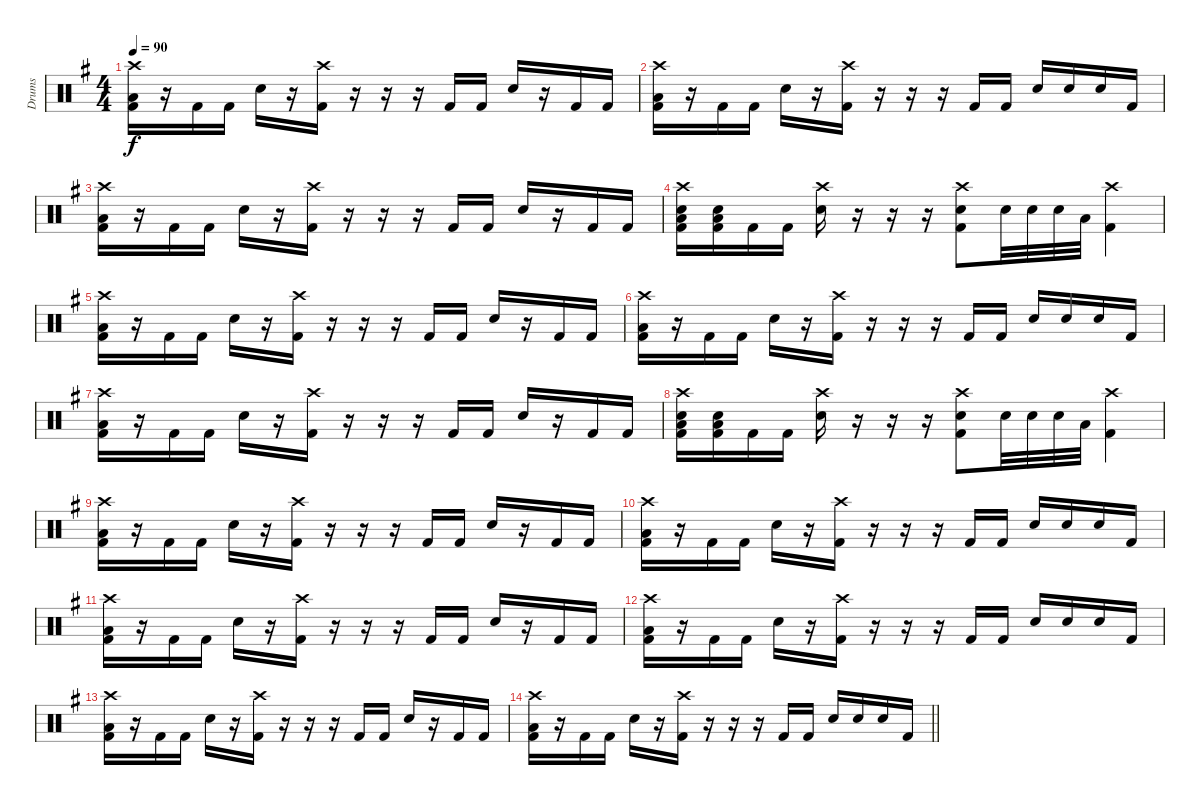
\track ("Drums" "Drums") {instrument percussion}
\staff {score}
\articulation defaults
\ts (4 4)
\tempo 90
\clef neutral
\ks g
("Crash high (hit)" "Low Floor Tom (hit)" "Kick (hit) 2").16{dy f} r.16 "Kick (hit) 2".16 "Kick (hit) 2".16 "Snare (hit) 2".16 r.16 ("Crash high (hit)" "Kick (hit) 2").16 r.16 r.16 r.16 "Kick (hit) 2".16 "Kick (hit) 2".16 "Snare (hit) 2".16 r.16 "Kick (hit) 2".16 "Kick (hit) 2".16 |
("Crash high (hit)" "Low Floor Tom (hit)" "Kick (hit) 2").16 r.16 "Kick (hit) 2".16 "Kick (hit) 2".16 "Snare (hit) 2".16 r.16 ("Crash high (hit)" "Kick (hit) 2").16 r.16 r.16 r.16 "Kick (hit) 2".16 "Kick (hit) 2".16 "Snare (hit) 2".16 "Snare (hit) 2".16 "Snare (hit) 2".16 "Kick (hit) 2".16 |
("Crash high (hit)" "Low Floor Tom (hit)" "Kick (hit) 2").16 r.16 "Kick (hit) 2".16 "Kick (hit) 2".16 "Snare (hit) 2".16 r.16 ("Crash high (hit)" "Kick (hit) 2").16 r.16 r.16 r.16 "Kick (hit) 2".16 "Kick (hit) 2".16 "Snare (hit) 2".16 r.16 "Kick (hit) 2".16 "Kick (hit) 2".16 |
("Crash high (hit)" "Snare (hit) 2" "Low Floor Tom (hit)" "Kick (hit) 2").16 ("Snare (hit) 2" "Low Floor Tom (hit)" "Kick (hit) 2").16 "Kick (hit) 2".16 "Kick (hit) 2".16 ("Crash high (hit)" "Snare (hit) 2").16 r.16 r.16 r.16 ("Crash high (hit)" "Snare (hit) 2" "Kick (hit) 2").8 "Snare (hit) 2".32 "Snare (hit) 2".32 "Snare (hit) 2".32 "Low Floor Tom (hit)".32 ("Crash high (hit)" "Kick (hit) 2").4 |
("Crash high (hit)" "Low Floor Tom (hit)" "Kick (hit) 2").16 r.16 "Kick (hit) 2".16 "Kick (hit) 2".16 "Snare (hit) 2".16 r.16 ("Crash high (hit)" "Kick (hit) 2").16 r.16 r.16 r.16 "Kick (hit) 2".16 "Kick (hit) 2".16 "Snare (hit) 2".16 r.16 "Kick (hit) 2".16 "Kick (hit) 2".16 |
("Crash high (hit)" "Low Floor Tom (hit)" "Kick (hit) 2").16 r.16 "Kick (hit) 2".16 "Kick (hit) 2".16 "Snare (hit) 2".16 r.16 ("Crash high (hit)" "Kick (hit) 2").16 r.16 r.16 r.16 "Kick (hit) 2".16 "Kick (hit) 2".16 "Snare (hit) 2".16 "Snare (hit) 2".16 "Snare (hit) 2".16 "Kick (hit) 2".16 |
("Crash high (hit)" "Low Floor Tom (hit)" "Kick (hit) 2").16 r.16 "Kick (hit) 2".16 "Kick (hit) 2".16 "Snare (hit) 2".16 r.16 ("Crash high (hit)" "Kick (hit) 2").16 r.16 r.16 r.16 "Kick (hit) 2".16 "Kick (hit) 2".16 "Snare (hit) 2".16 r.16 "Kick (hit) 2".16 "Kick (hit) 2".16 |
("Crash high (hit)" "Snare (hit) 2" "Low Floor Tom (hit)" "Kick (hit) 2").16 ("Snare (hit) 2" "Low Floor Tom (hit)" "Kick (hit) 2").16 "Kick (hit) 2".16 "Kick (hit) 2".16 ("Crash high (hit)" "Snare (hit) 2").16 r.16 r.16 r.16 ("Crash high (hit)" "Snare (hit) 2" "Kick (hit) 2").8 "Snare (hit) 2".32 "Snare (hit) 2".32 "Snare (hit) 2".32 "Low Floor Tom (hit)".32 ("Crash high (hit)" "Kick (hit) 2").4 |
("Crash high (hit)" "Low Floor Tom (hit)" "Kick (hit) 2").16 r.16 "Kick (hit) 2".16 "Kick (hit) 2".16 "Snare (hit) 2".16 r.16 ("Crash high (hit)" "Kick (hit) 2").16 r.16 r.16 r.16 "Kick (hit) 2".16 "Kick (hit) 2".16 "Snare (hit) 2".16 r.16 "Kick (hit) 2".16 "Kick (hit) 2".16 |
("Crash high (hit)" "Low Floor Tom (hit)" "Kick (hit) 2").16 r.16 "Kick (hit) 2".16 "Kick (hit) 2".16 "Snare (hit) 2".16 r.16 ("Crash high (hit)" "Kick (hit) 2").16 r.16 r.16 r.16 "Kick (hit) 2".16 "Kick (hit) 2".16 "Snare (hit) 2".16 "Snare (hit) 2".16 "Snare (hit) 2".16 "Kick (hit) 2".16 |
("Crash high (hit)" "Low Floor Tom (hit)" "Kick (hit) 2").16 r.16 "Kick (hit) 2".16 "Kick (hit) 2".16 "Snare (hit) 2".16 r.16 ("Crash high (hit)" "Kick (hit) 2").16 r.16 r.16 r.16 "Kick (hit) 2".16 "Kick (hit) 2".16 "Snare (hit) 2".16 r.16 "Kick (hit) 2".16 "Kick (hit) 2".16 |
("Crash high (hit)" "Low Floor Tom (hit)" "Kick (hit) 2").16 r.16 "Kick (hit) 2".16 "Kick (hit) 2".16 "Snare (hit) 2".16 r.16 ("Crash high (hit)" "Kick (hit) 2").16 r.16 r.16 r.16 "Kick (hit) 2".16 "Kick (hit) 2".16 "Snare (hit) 2".16 "Snare (hit) 2".16 "Snare (hit) 2".16 "Kick (hit) 2".16 |
("Crash high (hit)" "Low Floor Tom (hit)" "Kick (hit) 2").16 r.16 "Kick (hit) 2".16 "Kick (hit) 2".16 "Snare (hit) 2".16 r.16 ("Crash high (hit)" "Kick (hit) 2").16 r.16 r.16 r.16 "Kick (hit) 2".16 "Kick (hit) 2".16 "Snare (hit) 2".16 r.16 "Kick (hit) 2".16 "Kick (hit) 2".16 |
\barLineRight lightlight
("Crash high (hit)" "Low Floor Tom (hit)" "Kick (hit) 2").16 r.16 "Kick (hit) 2".16 "Kick (hit) 2".16 "Snare (hit) 2".16 r.16 ("Crash high (hit)" "Kick (hit) 2").16 r.16 r.16 r.16 "Kick (hit) 2".16 "Kick (hit) 2".16 "Snare (hit) 2".16 "Snare (hit) 2".16 "Snare (hit) 2".16 "Kick (hit) 2".16
